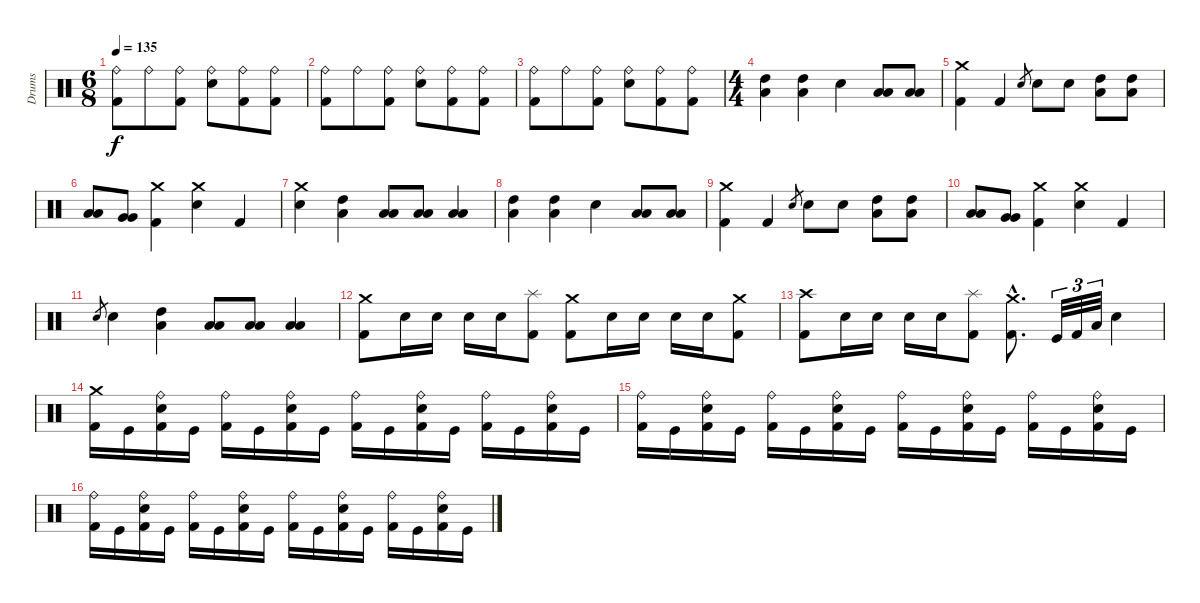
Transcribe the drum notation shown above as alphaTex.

\track ("Drums" "Drums") {instrument percussion}
\staff {score}
\articulation defaults
\ts (6 8)
\tempo 135
\clef neutral
\ks c
("Ride (bell)" "Kick (hit) 2").8{dy f} "Ride (bell)".8 ("Ride (bell)" "Kick (hit) 2").8 ("Ride (bell)" "Electric Snare (hit)").8 ("Ride (bell)" "Kick (hit) 2").8 ("Ride (bell)" "Kick (hit) 2").8 |
("Ride (bell)" "Kick (hit) 2").8 "Ride (bell)".8 ("Ride (bell)" "Kick (hit) 2").8 ("Ride (bell)" "Electric Snare (hit)").8 ("Ride (bell)" "Kick (hit) 2").8 ("Ride (bell)" "Kick (hit) 2").8 |
("Ride (bell)" "Kick (hit) 2").8 "Ride (bell)".8 ("Ride (bell)" "Kick (hit) 2").8 ("Ride (bell)" "Electric Snare (hit)").8 ("Ride (bell)" "Kick (hit) 2").8 ("Ride (bell)" "Kick (hit) 2").8 |
\ts (4 4)
("High Tom (hit)" "Low Tom (hit)").4 ("High Tom (hit)" "Low Tom (hit)").4 "Electric Snare (hit)".4 ("Low Tom (hit)" "Low Floor Tom (hit)").8 ("Low Tom (hit)" "Low Floor Tom (hit)").8 |
("Crash medium (hit)" "Kick (hit) 2").4 "Kick (hit) 2".4 "Electric Snare (hit)".8{gr} "Electric Snare (hit)".8 "Electric Snare (hit)".8 ("Low Tom (hit)" "High Tom (hit)").8 ("Low Floor Tom (hit)" "High Tom (hit)").8 |
("Low Floor Tom (hit)" "Low Floor Tom (hit)").8 ("Very Low Tom (hit)" "Very Low Tom (hit)").8 ("Crash medium (hit)" "Kick (hit) 2").4 ("Crash medium (hit)" "Electric Snare (hit)").4 "Kick (hit) 2".4 |
("Crash medium (hit)" "Electric Snare (hit)").4 ("High Tom (hit)" "Low Tom (hit)").4 ("Low Tom (hit)" "Low Tom (hit)").8 ("Low Tom (hit)" "Low Tom (hit)").8 ("Low Floor Tom (hit)" "Low Tom (hit)").4 |
("High Tom (hit)" "Low Tom (hit)").4 ("High Tom (hit)" "Low Tom (hit)").4 "Electric Snare (hit)".4 ("Low Tom (hit)" "Low Floor Tom (hit)").8 ("Low Tom (hit)" "Low Floor Tom (hit)").8 |
("Crash medium (hit)" "Kick (hit) 2").4 "Kick (hit) 2".4 "Electric Snare (hit)".8{gr} "Electric Snare (hit)".8 "Electric Snare (hit)".8 ("Low Tom (hit)" "High Tom (hit)").8 ("Low Floor Tom (hit)" "High Tom (hit)").8 |
("Low Floor Tom (hit)" "Low Floor Tom (hit)").8 ("Very Low Tom (hit)" "Very Low Tom (hit)").8 ("Crash medium (hit)" "Kick (hit) 2").4 ("Crash medium (hit)" "Electric Snare (hit)").4 "Kick (hit) 2".4 |
"Electric Snare (hit)".8{gr} "Electric Snare (hit)".4 ("High Tom (hit)" "Low Tom (hit)").4 ("Low Tom (hit)" "Low Tom (hit)").8 ("Low Tom (hit)" "Low Tom (hit)").8 ("Low Floor Tom (hit)" "Low Tom (hit)").4 |
("Crash medium (hit)" "Kick (hit) 2").8 "Electric Snare (hit)".16 "Electric Snare (hit)".16 "Electric Snare (hit)".16 "Electric Snare (hit)".16 ("Splash (hit)" "Kick (hit) 2").8 ("Crash medium (hit)" "Kick (hit) 2").8 "Electric Snare (hit)".16 "Electric Snare (hit)".16 "Electric Snare (hit)".16 "Electric Snare (hit)".16 ("Crash medium (hit)" "Kick (hit) 2").8 |
("Crash high (hit)" "Kick (hit) 2").8 "Electric Snare (hit)".16 "Electric Snare (hit)".16 "Electric Snare (hit)".16 "Electric Snare (hit)".16 ("Splash (hit)" "Kick (hit) 2").8 ("Crash medium (hit)"{hac} "Kick (hit) 2"{hac}).8{d} "Kick (hit)".32{tu (3 2)} "Kick (hit) 2".32{tu (3 2)} "Low Tom (hit)".32{tu (3 2)} "Electric Snare (hit)".4 |
("Crash medium (hit)" "Kick (hit) 2").16 "Kick (hit)".16 ("Ride (bell)" "Electric Snare (hit)" "Kick (hit) 2").16 "Kick (hit)".16 ("Ride (bell)" "Kick (hit) 2").16 "Kick (hit)".16 ("Ride (bell)" "Electric Snare (hit)" "Kick (hit) 2").16 "Kick (hit)".16 ("Ride (bell)" "Kick (hit) 2").16 "Kick (hit)".16 ("Ride (bell)" "Electric Snare (hit)" "Kick (hit) 2").16 "Kick (hit)".16 ("Ride (bell)" "Kick (hit) 2").16 "Kick (hit)".16 ("Ride (bell)" "Electric Snare (hit)" "Kick (hit) 2").16 "Kick (hit)".16 |
("Ride (bell)" "Kick (hit) 2").16 "Kick (hit)".16 ("Ride (bell)" "Electric Snare (hit)" "Kick (hit) 2").16 "Kick (hit)".16 ("Ride (bell)" "Kick (hit) 2").16 "Kick (hit)".16 ("Ride (bell)" "Electric Snare (hit)" "Kick (hit) 2").16 "Kick (hit)".16 ("Ride (bell)" "Kick (hit) 2").16 "Kick (hit)".16 ("Ride (bell)" "Electric Snare (hit)" "Kick (hit) 2").16 "Kick (hit)".16 ("Ride (bell)" "Kick (hit) 2").16 "Kick (hit)".16 ("Ride (bell)" "Electric Snare (hit)" "Kick (hit) 2").16 "Kick (hit)".16 |
("Ride (bell)" "Kick (hit) 2").16 "Kick (hit)".16 ("Ride (bell)" "Electric Snare (hit)" "Kick (hit) 2").16 "Kick (hit)".16 ("Ride (bell)" "Kick (hit) 2").16 "Kick (hit)".16 ("Ride (bell)" "Electric Snare (hit)" "Kick (hit) 2").16 "Kick (hit)".16 ("Ride (bell)" "Kick (hit) 2").16 "Kick (hit)".16 ("Ride (bell)" "Electric Snare (hit)" "Kick (hit) 2").16 "Kick (hit)".16 ("Ride (bell)" "Kick (hit) 2").16 "Kick (hit)".16 ("Ride (bell)" "Electric Snare (hit)" "Kick (hit) 2").16 "Kick (hit)".16
